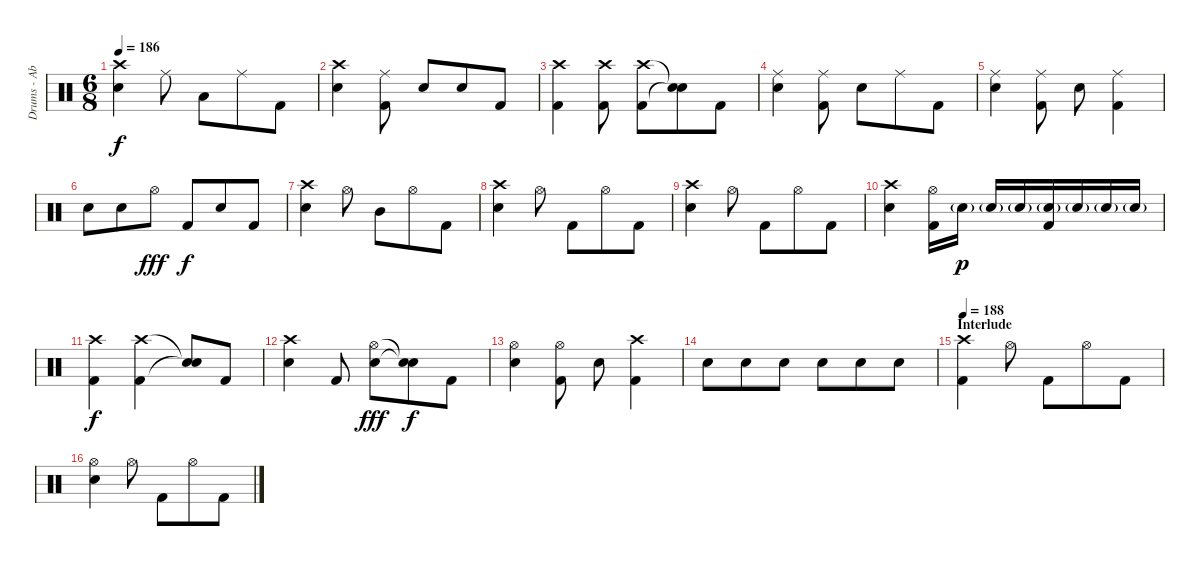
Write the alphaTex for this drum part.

\track ("Drums - Abe Cunningham" "Drums - Ab") {instrument percussion}
\staff {score}
\articulation defaults
\ts (6 8)
\tempo 186
\clef neutral
\ks c
("Crash high (hit)" "Electric Snare (hit)").4{dy f} "Ride (middle)".8 "Low Tom (hit)".8 "Ride (middle)".8 "Kick (hit) 2".8 |
("Crash high (hit)" "Electric Snare (hit)").4 ("Ride (middle)" "Kick (hit) 2").8 "Electric Snare (hit)".8 "Electric Snare (hit)".8 "Kick (hit) 2".8 |
("Crash high (hit)" "Kick (hit) 2").4 ("Crash high (hit)" "Kick (hit) 2").8 ("Crash high (hit)" "Kick (hit) 2").8 ("Snare (hit)"{t} "Snare (hit)"{t}).8 "Kick (hit) 2".8 |
("Ride (middle)" "Electric Snare (hit)").4 ("Ride (middle)" "Kick (hit) 2").8 "Electric Snare (hit)".8 "Ride (middle)".8 "Kick (hit) 2".8 |
("Ride (middle)" "Electric Snare (hit)").4 ("Ride (middle)" "Kick (hit) 2").8 "Electric Snare (hit)".8 ("Ride (middle)" "Kick (hit) 2").4 |
"Electric Snare (hit)".8 "Electric Snare (hit)".8 "Hi-Hat (open)".8{dy fff} "Kick (hit) 2".8{dy f} "Electric Snare (hit)".8 "Kick (hit) 2".8 |
("Crash high (hit)" "Electric Snare (hit)").4 "Hi-Hat (open)".8 "Mid Tom (hit)".8 "Hi-Hat (open)".8 "Kick (hit) 2".8 |
("Crash high (hit)" "Electric Snare (hit)").4 "Hi-Hat (open)".8 "Kick (hit) 2".8 "Hi-Hat (open)".8 "Kick (hit) 2".8 |
("Crash high (hit)" "Electric Snare (hit)").4 "Hi-Hat (open)".8 "Kick (hit) 2".8 "Hi-Hat (open)".8 "Kick (hit) 2".8 |
("Crash high (hit)" "Electric Snare (hit)").4 ("Hi-Hat (open)" "Kick (hit) 2").16 "Electric Snare (hit)"{g}.16{dy p} "Electric Snare (hit)"{g}.16 "Electric Snare (hit)"{g}.16 ("Electric Snare (hit)"{g} "Kick (hit) 2").16 "Electric Snare (hit)"{g}.16 "Electric Snare (hit)"{g}.16 "Electric Snare (hit)"{g}.16 |
("Crash high (hit)" "Kick (hit) 2").4{dy f} ("Crash high (hit)" "Kick (hit) 2").4 ("Snare (hit)"{t} "Snare (hit)"{t}).8 "Kick (hit) 2".8 |
("Crash high (hit)" "Electric Snare (hit)").4 "Kick (hit) 2".8 ("Hi-Hat (open)" "Electric Snare (hit)").8{dy fff} ("Snare (hit)"{t} "Snare (hit)"{t}).8{dy f} "Kick (hit) 2".8 |
("Hi-Hat (open)" "Electric Snare (hit)").4 ("Hi-Hat (open)" "Kick (hit) 2").8 "Electric Snare (hit)".8 ("Crash high (hit)" "Kick (hit) 2").4 |
"Electric Snare (hit)".8 "Electric Snare (hit)".8 "Electric Snare (hit)".8 "Electric Snare (hit)".8 "Electric Snare (hit)".8 "Electric Snare (hit)".8 |
\section ("" "Interlude")
\tempo 188
("Crash high (hit)" "Kick (hit) 2").4 "Hi-Hat (open)".8 "Kick (hit) 2".8 "Hi-Hat (open)".8 "Kick (hit) 2".8 |
("Hi-Hat (open)" "Electric Snare (hit)").4 "Hi-Hat (open)".8 "Kick (hit) 2".8 "Hi-Hat (open)".8 "Kick (hit) 2".8
